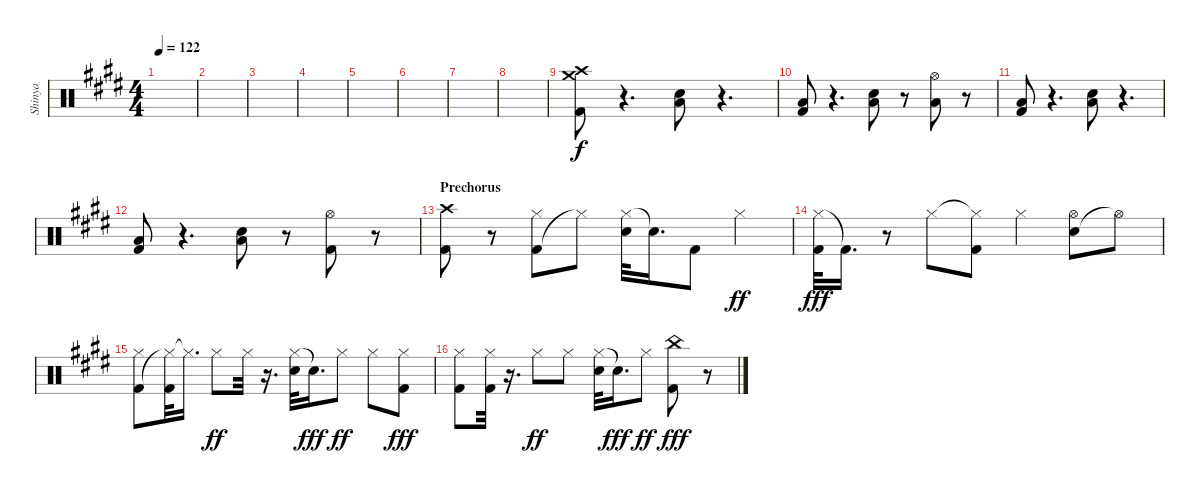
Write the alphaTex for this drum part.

\track ("Shinya" "Shinya") {instrument percussion}
\staff {score}
\articulation defaults
\ts (4 4)
\tempo 122
\clef neutral
\ks c#minor
|
|
|
|
|
|
|
|
("Kick (hit) 2" "Crash high (hit)" "Crash medium (hit)").8 r.4{d} ("Snare (hit) 2" "Low Tom (hit)").8 r.4{d} |
("Kick (hit) 2" "Low Tom (hit)").8 r.4{d} ("Snare (hit) 2" "Low Tom (hit)").8 r.8 ("Low Tom (hit)" "Hi-Hat (open)").8 r.8 |
("Kick (hit) 2" "Low Tom (hit)").8 r.4{d} ("Snare (hit) 2" "Low Tom (hit)").8 r.4{d} |
("Kick (hit) 2" "Low Tom (hit)").8 r.4{d} ("Snare (hit) 2" "Low Tom (hit)").8 r.8 ("Kick (hit) 2" "Hi-Hat (open)").8 r.8 |
\section ("" "Prechorus")
("Kick (hit) 2" "Crash high (hit)").8 r.8 ("Kick (hit) 2" "Hi-Hat (closed)").8 "Hi-Hat (closed)"{t}.8 ("Hi-Hat (closed)" "Snare (hit) 2").32 "Snare (hit) 2"{t}.16{d} "Kick (hit) 2".8 "Hi-Hat (closed)".4{dy ff} |
("Hi-Hat (closed)" "Kick (hit) 2").32{dy fff} "Kick (hit) 2"{t}.16{d} r.8 "Hi-Hat (closed)".8 ("Hi-Hat (closed)"{t} "Kick (hit) 2").8 "Hi-Hat (closed)".4 ("Snare (hit) 2" "Hi-Hat (open)").8 "Hi-Hat (open)"{t}.8 |
("Kick (hit) 2" "Hi-Hat (closed)").8 ("Hi-Hat (closed)"{t} "Kick (hit) 2").32 "Hi-Hat (closed)"{t}.16{d} "Hi-Hat (closed)".8{dy ff} "Hi-Hat (closed)".32 r.16{d} ("Hi-Hat (closed)" "Snare (hit) 2").32 "Snare (hit) 2"{t}.16{d dy fff} "Hi-Hat (closed)".8{dy ff} "Hi-Hat (closed)".8 ("Kick (hit) 2" "Hi-Hat (closed)").8{dy fff} |
("Kick (hit) 2" "Hi-Hat (closed)").8 ("Kick (hit) 2" "Hi-Hat (closed)").32 r.16{d} "Hi-Hat (closed)".8{dy ff} "Hi-Hat (closed)".8 ("Hi-Hat (closed)" "Snare (hit) 2").32 "Snare (hit) 2"{t}.16{d dy fff} "Hi-Hat (closed)".8{dy ff} ("Kick (hit) 2" "China (hit)").8{dy fff} r.8
